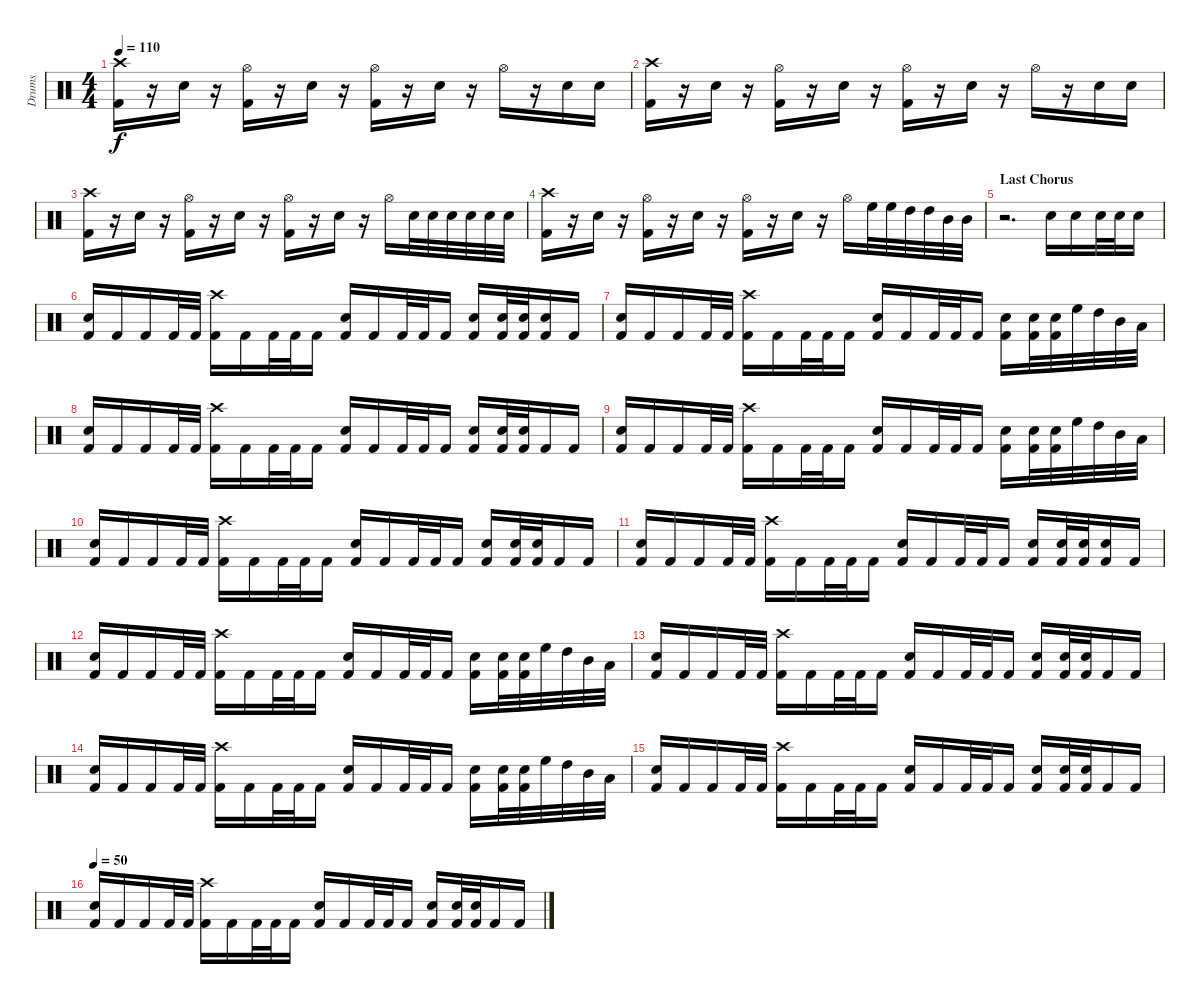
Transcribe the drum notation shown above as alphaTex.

\track ("Drums" "Drums") {instrument percussion}
\staff {score}
\articulation defaults
\ts (4 4)
\tempo 110
\clef neutral
\ks c
("Crash high (hit)" "Kick (hit) 2").16{dy f} r.16 "Snare (hit) 2".16 r.16 ("Hi-Hat (open)" "Kick (hit) 2").16 r.16 "Snare (hit) 2".16 r.16 ("Hi-Hat (open)" "Kick (hit) 2").16 r.16 "Snare (hit) 2".16 r.16 "Hi-Hat (open)".16 r.16 "Snare (hit) 2".16 "Snare (hit) 2".16 |
("Crash high (hit)" "Kick (hit) 2").16 r.16 "Snare (hit) 2".16 r.16 ("Hi-Hat (open)" "Kick (hit) 2").16 r.16 "Snare (hit) 2".16 r.16 ("Hi-Hat (open)" "Kick (hit) 2").16 r.16 "Snare (hit) 2".16 r.16 "Hi-Hat (open)".16 r.16 "Snare (hit) 2".16 "Snare (hit) 2".16 |
("Crash high (hit)" "Kick (hit) 2").16 r.16 "Snare (hit) 2".16 r.16 ("Hi-Hat (open)" "Kick (hit) 2").16 r.16 "Snare (hit) 2".16 r.16 ("Hi-Hat (open)" "Kick (hit) 2").16 r.16 "Snare (hit) 2".16 r.16 "Hi-Hat (open)".16 "Snare (hit) 2".32 "Snare (hit) 2".32 "Snare (hit) 2".32 "Snare (hit) 2".32 "Snare (hit) 2".32 "Snare (hit) 2".32 |
("Crash high (hit)" "Kick (hit) 2").16 r.16 "Snare (hit) 2".16 r.16 ("Hi-Hat (open)" "Kick (hit) 2").16 r.16 "Snare (hit) 2".16 r.16 ("Hi-Hat (open)" "Kick (hit) 2").16 r.16 "Snare (hit) 2".16 r.16 "Hi-Hat (open)".16 "High Floor Tom (hit)".32 "High Floor Tom (hit)".32 "High Tom (hit)".32 "High Tom (hit)".32 "Mid Tom (hit)".32 "Mid Tom (hit)".32 |
\section ("" "Last Chorus")
r.2{d} "Snare (hit) 2".16 "Snare (hit) 2".16 "Snare (hit) 2".32 "Snare (hit) 2".32 "Snare (hit) 2".16 |
("Snare (hit) 2" "Kick (hit) 2").16 "Kick (hit) 2".16 "Kick (hit) 2".16 "Kick (hit) 2".32 "Kick (hit) 2".32 ("Crash high (hit)" "Kick (hit) 2").16 "Kick (hit) 2".16 "Kick (hit) 2".32 "Kick (hit) 2".32 "Kick (hit) 2".16 ("Snare (hit) 2" "Kick (hit) 2").16 "Kick (hit) 2".16 "Kick (hit) 2".32 "Kick (hit) 2".32 "Kick (hit) 2".16 ("Snare (hit) 2" "Kick (hit) 2").16 ("Snare (hit) 2" "Kick (hit) 2").32 ("Snare (hit) 2" "Kick (hit) 2").32 ("Snare (hit) 2" "Kick (hit) 2").16 "Kick (hit) 2".16 |
("Snare (hit) 2" "Kick (hit) 2").16 "Kick (hit) 2".16 "Kick (hit) 2".16 "Kick (hit) 2".32 "Kick (hit) 2".32 ("Crash high (hit)" "Kick (hit) 2").16 "Kick (hit) 2".16 "Kick (hit) 2".32 "Kick (hit) 2".32 "Kick (hit) 2".16 ("Snare (hit) 2" "Kick (hit) 2").16 "Kick (hit) 2".16 "Kick (hit) 2".32 "Kick (hit) 2".32 "Kick (hit) 2".16 ("Snare (hit) 2" "Kick (hit) 2").16 ("Snare (hit) 2" "Kick (hit) 2").32 ("Snare (hit) 2" "Kick (hit) 2").32 "High Floor Tom (hit)".32 "High Tom (hit)".32 "Mid Tom (hit)".32 "Low Tom (hit)".32 |
("Snare (hit) 2" "Kick (hit) 2").16 "Kick (hit) 2".16 "Kick (hit) 2".16 "Kick (hit) 2".32 "Kick (hit) 2".32 ("Crash high (hit)" "Kick (hit) 2").16 "Kick (hit) 2".16 "Kick (hit) 2".32 "Kick (hit) 2".32 "Kick (hit) 2".16 ("Snare (hit) 2" "Kick (hit) 2").16 "Kick (hit) 2".16 "Kick (hit) 2".32 "Kick (hit) 2".32 "Kick (hit) 2".16 ("Snare (hit) 2" "Kick (hit) 2").16 ("Snare (hit) 2" "Kick (hit) 2").32 ("Snare (hit) 2" "Kick (hit) 2").32 "Kick (hit) 2".16 "Kick (hit) 2".16 |
("Snare (hit) 2" "Kick (hit) 2").16 "Kick (hit) 2".16 "Kick (hit) 2".16 "Kick (hit) 2".32 "Kick (hit) 2".32 ("Crash high (hit)" "Kick (hit) 2").16 "Kick (hit) 2".16 "Kick (hit) 2".32 "Kick (hit) 2".32 "Kick (hit) 2".16 ("Snare (hit) 2" "Kick (hit) 2").16 "Kick (hit) 2".16 "Kick (hit) 2".32 "Kick (hit) 2".32 "Kick (hit) 2".16 ("Snare (hit) 2" "Kick (hit) 2").16 ("Snare (hit) 2" "Kick (hit) 2").32 ("Snare (hit) 2" "Kick (hit) 2").32 "High Floor Tom (hit)".32 "High Tom (hit)".32 "Mid Tom (hit)".32 "Low Tom (hit)".32 |
("Snare (hit) 2" "Kick (hit) 2").16 "Kick (hit) 2".16 "Kick (hit) 2".16 "Kick (hit) 2".32 "Kick (hit) 2".32 ("Crash high (hit)" "Kick (hit) 2").16 "Kick (hit) 2".16 "Kick (hit) 2".32 "Kick (hit) 2".32 "Kick (hit) 2".16 ("Snare (hit) 2" "Kick (hit) 2").16 "Kick (hit) 2".16 "Kick (hit) 2".32 "Kick (hit) 2".32 "Kick (hit) 2".16 ("Snare (hit) 2" "Kick (hit) 2").16 ("Snare (hit) 2" "Kick (hit) 2").32 ("Snare (hit) 2" "Kick (hit) 2").32 "Kick (hit) 2".16 "Kick (hit) 2".16 |
("Snare (hit) 2" "Kick (hit) 2").16 "Kick (hit) 2".16 "Kick (hit) 2".16 "Kick (hit) 2".32 "Kick (hit) 2".32 ("Crash high (hit)" "Kick (hit) 2").16 "Kick (hit) 2".16 "Kick (hit) 2".32 "Kick (hit) 2".32 "Kick (hit) 2".16 ("Snare (hit) 2" "Kick (hit) 2").16 "Kick (hit) 2".16 "Kick (hit) 2".32 "Kick (hit) 2".32 "Kick (hit) 2".16 ("Snare (hit) 2" "Kick (hit) 2").16 ("Snare (hit) 2" "Kick (hit) 2").32 ("Snare (hit) 2" "Kick (hit) 2").32 ("Snare (hit) 2" "Kick (hit) 2").16 "Kick (hit) 2".16 |
("Snare (hit) 2" "Kick (hit) 2").16 "Kick (hit) 2".16 "Kick (hit) 2".16 "Kick (hit) 2".32 "Kick (hit) 2".32 ("Crash high (hit)" "Kick (hit) 2").16 "Kick (hit) 2".16 "Kick (hit) 2".32 "Kick (hit) 2".32 "Kick (hit) 2".16 ("Snare (hit) 2" "Kick (hit) 2").16 "Kick (hit) 2".16 "Kick (hit) 2".32 "Kick (hit) 2".32 "Kick (hit) 2".16 ("Snare (hit) 2" "Kick (hit) 2").16 ("Snare (hit) 2" "Kick (hit) 2").32 ("Snare (hit) 2" "Kick (hit) 2").32 "High Floor Tom (hit)".32 "High Tom (hit)".32 "Mid Tom (hit)".32 "Low Tom (hit)".32 |
("Snare (hit) 2" "Kick (hit) 2").16 "Kick (hit) 2".16 "Kick (hit) 2".16 "Kick (hit) 2".32 "Kick (hit) 2".32 ("Crash high (hit)" "Kick (hit) 2").16 "Kick (hit) 2".16 "Kick (hit) 2".32 "Kick (hit) 2".32 "Kick (hit) 2".16 ("Snare (hit) 2" "Kick (hit) 2").16 "Kick (hit) 2".16 "Kick (hit) 2".32 "Kick (hit) 2".32 "Kick (hit) 2".16 ("Snare (hit) 2" "Kick (hit) 2").16 ("Snare (hit) 2" "Kick (hit) 2").32 ("Snare (hit) 2" "Kick (hit) 2").32 "Kick (hit) 2".16 "Kick (hit) 2".16 |
("Snare (hit) 2" "Kick (hit) 2").16 "Kick (hit) 2".16 "Kick (hit) 2".16 "Kick (hit) 2".32 "Kick (hit) 2".32 ("Crash high (hit)" "Kick (hit) 2").16 "Kick (hit) 2".16 "Kick (hit) 2".32 "Kick (hit) 2".32 "Kick (hit) 2".16 ("Snare (hit) 2" "Kick (hit) 2").16 "Kick (hit) 2".16 "Kick (hit) 2".32 "Kick (hit) 2".32 "Kick (hit) 2".16 ("Snare (hit) 2" "Kick (hit) 2").16 ("Snare (hit) 2" "Kick (hit) 2").32 ("Snare (hit) 2" "Kick (hit) 2").32 "High Floor Tom (hit)".32 "High Tom (hit)".32 "Mid Tom (hit)".32 "Low Tom (hit)".32 |
("Snare (hit) 2" "Kick (hit) 2").16 "Kick (hit) 2".16 "Kick (hit) 2".16 "Kick (hit) 2".32 "Kick (hit) 2".32 ("Crash high (hit)" "Kick (hit) 2").16 "Kick (hit) 2".16 "Kick (hit) 2".32 "Kick (hit) 2".32 "Kick (hit) 2".16 ("Snare (hit) 2" "Kick (hit) 2").16 "Kick (hit) 2".16 "Kick (hit) 2".32 "Kick (hit) 2".32 "Kick (hit) 2".16 ("Snare (hit) 2" "Kick (hit) 2").16 ("Snare (hit) 2" "Kick (hit) 2").32 ("Snare (hit) 2" "Kick (hit) 2").32 "Kick (hit) 2".16 "Kick (hit) 2".16 |
\tempo 50
("Snare (hit) 2" "Kick (hit) 2").16 "Kick (hit) 2".16 "Kick (hit) 2".16 "Kick (hit) 2".32 "Kick (hit) 2".32 ("Crash high (hit)" "Kick (hit) 2").16 "Kick (hit) 2".16 "Kick (hit) 2".32 "Kick (hit) 2".32 "Kick (hit) 2".16 ("Snare (hit) 2" "Kick (hit) 2").16 "Kick (hit) 2".16 "Kick (hit) 2".32 "Kick (hit) 2".32 "Kick (hit) 2".16 ("Snare (hit) 2" "Kick (hit) 2").16 ("Snare (hit) 2" "Kick (hit) 2").32 ("Snare (hit) 2" "Kick (hit) 2").32 "Kick (hit) 2".16 "Kick (hit) 2".16
